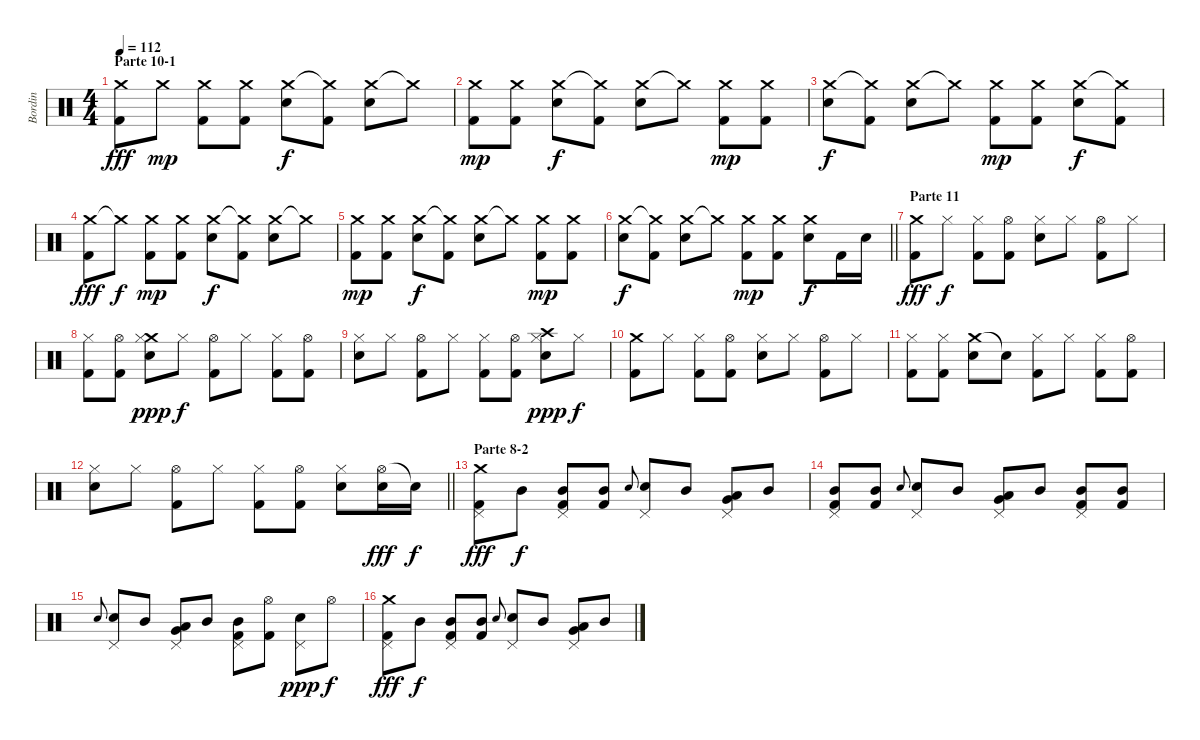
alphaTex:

\track ("Bordin" "Bordin") {instrument percussion}
\staff {score}
\articulation defaults
\ts (4 4)
\section ("" "Parte 10-1")
\tempo 112
\clef neutral
\ks c
("Crash medium (hit)" "Kick (hit) 2").8{dy fff} "Crash medium (hit)".8{dy mp} ("Crash medium (hit)" "Kick (hit) 2").8 ("Crash medium (hit)" "Kick (hit) 2").8 ("Crash medium (hit)" "Electric Snare (hit)").8{dy f} ("Crash medium (hit)"{t} "Kick (hit) 2").8 ("Crash medium (hit)" "Electric Snare (hit)").8 "Crash medium (hit)"{t}.8 |
("Crash medium (hit)" "Kick (hit) 2").8{dy mp} ("Crash medium (hit)" "Kick (hit) 2").8 ("Crash medium (hit)" "Electric Snare (hit)").8{dy f} ("Crash medium (hit)"{t} "Kick (hit) 2").8 ("Crash medium (hit)" "Electric Snare (hit)").8 "Crash medium (hit)"{t}.8 ("Crash medium (hit)" "Kick (hit) 2").8{dy mp} ("Crash medium (hit)" "Kick (hit) 2").8 |
("Crash medium (hit)" "Electric Snare (hit)").8{dy f} ("Crash medium (hit)"{t} "Kick (hit) 2").8 ("Crash medium (hit)" "Electric Snare (hit)").8 "Crash medium (hit)"{t}.8 ("Crash medium (hit)" "Kick (hit) 2").8{dy mp} ("Crash medium (hit)" "Kick (hit) 2").8 ("Crash medium (hit)" "Electric Snare (hit)").8{dy f} ("Crash medium (hit)"{t} "Kick (hit) 2").8 |
("Crash medium (hit)" "Kick (hit) 2").8{dy fff} "Crash medium (hit)"{t}.8{dy f} ("Crash medium (hit)" "Kick (hit) 2").8{dy mp} ("Crash medium (hit)" "Kick (hit) 2").8 ("Crash medium (hit)" "Electric Snare (hit)").8{dy f} ("Crash medium (hit)"{t} "Kick (hit) 2").8 ("Crash medium (hit)" "Electric Snare (hit)").8 "Crash medium (hit)"{t}.8 |
("Crash medium (hit)" "Kick (hit) 2").8{dy mp} ("Crash medium (hit)" "Kick (hit) 2").8 ("Crash medium (hit)" "Electric Snare (hit)").8{dy f} ("Crash medium (hit)"{t} "Kick (hit) 2").8 ("Crash medium (hit)" "Electric Snare (hit)").8 "Crash medium (hit)"{t}.8 ("Crash medium (hit)" "Kick (hit) 2").8{dy mp} ("Crash medium (hit)" "Kick (hit) 2").8 |
\barLineRight lightlight
("Crash medium (hit)" "Electric Snare (hit)").8{dy f} ("Crash medium (hit)"{t} "Kick (hit) 2").8 ("Crash medium (hit)" "Electric Snare (hit)").8 "Crash medium (hit)"{t}.8 ("Crash medium (hit)" "Kick (hit) 2").8{dy mp} ("Crash medium (hit)" "Kick (hit) 2").8 ("Crash medium (hit)" "Electric Snare (hit)").8{dy f} "Kick (hit) 2".16 "Electric Snare (hit)".16 |
\section ("" "Parte 11")
("Crash medium (hit)" "Kick (hit) 2").8{dy fff} "Hi-Hat (closed)".8{dy f} ("Hi-Hat (closed)" "Kick (hit) 2").8 ("Hi-Hat (open)" "Kick (hit) 2").8 ("Hi-Hat (closed)" "Electric Snare (hit)").8 "Hi-Hat (closed)".8 ("Hi-Hat (open)" "Kick (hit) 2").8 "Hi-Hat (closed)".8 |
("Hi-Hat (closed)" "Kick (hit) 2").8 ("Hi-Hat (open)" "Kick (hit) 2").8 ("Crash medium (hit)" "Hi-Hat (closed)" "Electric Snare (hit)").8{dy ppp} "Hi-Hat (closed)".8{dy f} ("Hi-Hat (open)" "Kick (hit) 2").8 "Hi-Hat (closed)".8 ("Hi-Hat (closed)" "Kick (hit) 2").8 ("Hi-Hat (open)" "Kick (hit) 2").8 |
("Hi-Hat (closed)" "Electric Snare (hit)").8 "Hi-Hat (closed)".8 ("Hi-Hat (open)" "Kick (hit) 2").8 "Hi-Hat (closed)".8 ("Hi-Hat (closed)" "Kick (hit) 2").8 ("Hi-Hat (open)" "Kick (hit) 2").8 ("Crash high (hit)" "Hi-Hat (closed)" "Electric Snare (hit)").8{dy ppp} "Hi-Hat (closed)".8{dy f} |
("Crash medium (hit)" "Kick (hit) 2").8 "Hi-Hat (closed)".8 ("Hi-Hat (closed)" "Kick (hit) 2").8 ("Hi-Hat (open)" "Kick (hit) 2").8 ("Hi-Hat (closed)" "Electric Snare (hit)").8 "Hi-Hat (closed)".8 ("Hi-Hat (open)" "Kick (hit) 2").8 "Hi-Hat (closed)".8 |
("Hi-Hat (closed)" "Kick (hit) 2").8 ("Hi-Hat (closed)" "Kick (hit) 2").8 ("Crash medium (hit)" "Electric Snare (hit)").8 "Snare (hit)"{t}.8 ("Hi-Hat (closed)" "Kick (hit) 2").8 "Hi-Hat (closed)".8 ("Hi-Hat (closed)" "Kick (hit) 2").8 ("Hi-Hat (open)" "Kick (hit) 2").8 |
\barLineRight lightlight
("Hi-Hat (closed)" "Electric Snare (hit)").8 "Hi-Hat (closed)".8 ("Hi-Hat (open)" "Kick (hit) 2").8 "Hi-Hat (closed)".8 ("Hi-Hat (closed)" "Kick (hit) 2").8 ("Hi-Hat (open)" "Kick (hit) 2").8 ("Hi-Hat (closed)" "Electric Snare (hit)").8 ("Hi-Hat (open)" "Electric Snare (hit)").16{dy fff} "Snare (hit)"{t}.16{dy f} |
\section ("" "Parte 8-2")
("Crash medium (hit)" "Pedal Hi-Hat (hit)" "Kick (hit) 2").8{dy fff} "Mid Tom (hit)".8{dy f} ("Mid Tom (hit)" "Pedal Hi-Hat (hit)" "Kick (hit) 2").8 ("Mid Tom (hit)" "Kick (hit) 2").8 "Electric Snare (hit)".8{gr onbeat} ("Pedal Hi-Hat (hit)" "Electric Snare (hit)").8 "Mid Tom (hit)".8 ("Low Tom (hit)" "Very Low Tom (hit)" "Pedal Hi-Hat (hit)").8 "Mid Tom (hit)".8 |
("Mid Tom (hit)" "Pedal Hi-Hat (hit)" "Kick (hit) 2").8 ("Mid Tom (hit)" "Kick (hit) 2").8 "Electric Snare (hit)".8{gr onbeat} ("Pedal Hi-Hat (hit)" "Electric Snare (hit)").8 "Mid Tom (hit)".8 ("Low Tom (hit)" "Very Low Tom (hit)" "Pedal Hi-Hat (hit)").8 "Mid Tom (hit)".8 ("Mid Tom (hit)" "Pedal Hi-Hat (hit)" "Kick (hit) 2").8 ("Mid Tom (hit)" "Kick (hit) 2").8 |
"Electric Snare (hit)".8{gr onbeat} ("Pedal Hi-Hat (hit)" "Electric Snare (hit)").8 "Mid Tom (hit)".8 ("Low Tom (hit)" "Very Low Tom (hit)" "Pedal Hi-Hat (hit)").8 "Mid Tom (hit)".8 ("Mid Tom (hit)" "Pedal Hi-Hat (hit)" "Kick (hit) 2").8 ("Hi-Hat (open)" "Kick (hit) 2").8 ("Pedal Hi-Hat (hit)" "Electric Snare (hit)").8{dy ppp} "Hi-Hat (open)".8{dy f} |
("Crash medium (hit)" "Pedal Hi-Hat (hit)" "Kick (hit) 2").8{dy fff} "Mid Tom (hit)".8{dy f} ("Mid Tom (hit)" "Pedal Hi-Hat (hit)" "Kick (hit) 2").8 ("Mid Tom (hit)" "Kick (hit) 2").8 "Electric Snare (hit)".8{gr onbeat} ("Pedal Hi-Hat (hit)" "Electric Snare (hit)").8 "Mid Tom (hit)".8 ("Low Tom (hit)" "Very Low Tom (hit)" "Pedal Hi-Hat (hit)").8 "Mid Tom (hit)".8
